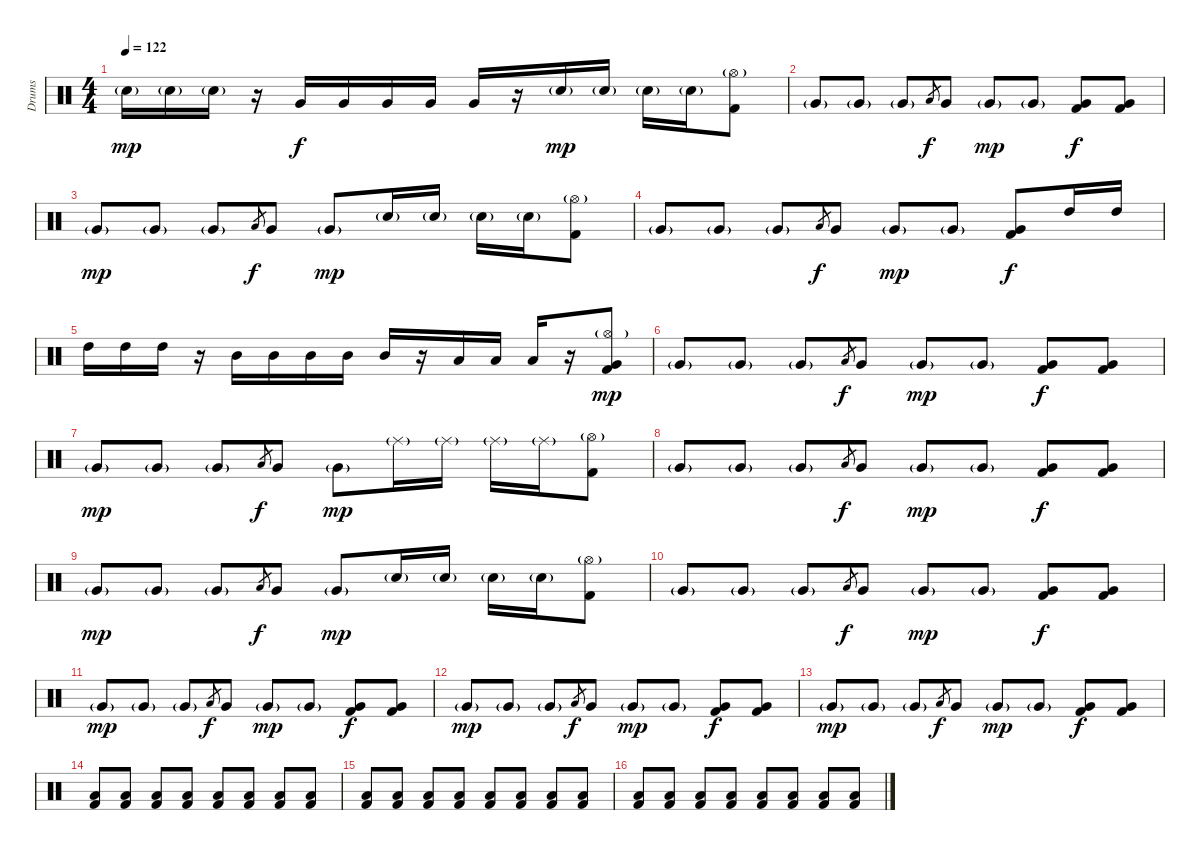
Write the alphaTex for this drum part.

\track ("Drums" "Drums") {instrument percussion}
\staff {score}
\articulation defaults
\ts (4 4)
\tempo 122
\clef neutral
\ks c "Electric Snare (hit)"{g}.16{dy mp} "Electric Snare (hit)"{g}.16 "Electric Snare (hit)"{g}.16
r.16 "Very Low Tom (hit)".16{dy f} "Very Low Tom (hit)".16 "Very Low Tom (hit)".16 "Very Low Tom (hit)".16 "Very Low Tom (hit)".16 r.16 "Electric Snare (hit)"{g}.16{dy mp} "Electric Snare (hit)"{g}.16 "Electric Snare (hit)"{g}.16 "Electric Snare (hit)"{g}.16 ("Hi-Hat (open)"{g} "Kick (hit) 2").8 |
"Very Low Tom (hit)"{g}.8 "Very Low Tom (hit)"{g}.8 "Very Low Tom (hit)"{g}.8 "Low Floor Tom (hit)".8{gr dy f} "Very Low Tom (hit)".8 "Very Low Tom (hit)"{g}.8{dy mp} "Very Low Tom (hit)"{g}.8 ("Very Low Tom (hit)" "Kick (hit) 2").8{dy f} ("Very Low Tom (hit)" "Kick (hit) 2").8 |
"Very Low Tom (hit)"{g}.8{dy mp} "Very Low Tom (hit)"{g}.8 "Very Low Tom (hit)"{g}.8 "Low Floor Tom (hit)".8{gr dy f} "Very Low Tom (hit)".8 "Very Low Tom (hit)"{g}.8{dy mp} "Electric Snare (hit)"{g}.16 "Electric Snare (hit)"{g}.16 "Electric Snare (hit)"{g}.16 "Electric Snare (hit)"{g}.16 ("Hi-Hat (open)"{g} "Kick (hit) 2").8 |
"Very Low Tom (hit)"{g}.8 "Very Low Tom (hit)"{g}.8 "Very Low Tom (hit)"{g}.8 "Low Floor Tom (hit)".8{gr dy f} "Very Low Tom (hit)".8 "Very Low Tom (hit)"{g}.8{dy mp} "Very Low Tom (hit)"{g}.8 ("Very Low Tom (hit)" "Kick (hit) 2").8{dy f} "High Tom (hit)".16 "High Tom (hit)".16 |
"High Tom (hit)".16 "High Tom (hit)".16 "High Tom (hit)".16 r.16 "Mid Tom (hit)".16 "Mid Tom (hit)".16 "Mid Tom (hit)".16 "Mid Tom (hit)".16 "Mid Tom (hit)".16 r.16 "Low Tom (hit)".16 "Low Tom (hit)".16 "Low Tom (hit)".16 r.16 ("Hi-Hat (open)"{g} "Very Low Tom (hit)" "Kick (hit) 2").8{dy mp} |
"Very Low Tom (hit)"{g}.8 "Very Low Tom (hit)"{g}.8 "Very Low Tom (hit)"{g}.8 "Low Floor Tom (hit)".8{gr dy f} "Very Low Tom (hit)".8 "Very Low Tom (hit)"{g}.8{dy mp} "Very Low Tom (hit)"{g}.8 ("Very Low Tom (hit)" "Kick (hit) 2").8{dy f} ("Very Low Tom (hit)" "Kick (hit) 2").8 |
"Very Low Tom (hit)"{g}.8{dy mp} "Very Low Tom (hit)"{g}.8 "Very Low Tom (hit)"{g}.8 "Low Floor Tom (hit)".8{gr dy f} "Very Low Tom (hit)".8 "Very Low Tom (hit)"{g}.8{dy mp} "Ride (middle)"{g}.16 "Ride (middle)"{g}.16 "Ride (middle)"{g}.16 "Ride (middle)"{g}.16 ("Hi-Hat (open)"{g} "Kick (hit) 2").8 |
"Very Low Tom (hit)"{g}.8 "Very Low Tom (hit)"{g}.8 "Very Low Tom (hit)"{g}.8 "Low Floor Tom (hit)".8{gr dy f} "Very Low Tom (hit)".8 "Very Low Tom (hit)"{g}.8{dy mp} "Very Low Tom (hit)"{g}.8 ("Very Low Tom (hit)" "Kick (hit) 2").8{dy f} ("Very Low Tom (hit)" "Kick (hit) 2").8 |
"Very Low Tom (hit)"{g}.8{dy mp} "Very Low Tom (hit)"{g}.8 "Very Low Tom (hit)"{g}.8 "Low Floor Tom (hit)".8{gr dy f} "Very Low Tom (hit)".8 "Very Low Tom (hit)"{g}.8{dy mp} "Electric Snare (hit)"{g}.16 "Electric Snare (hit)"{g}.16 "Electric Snare (hit)"{g}.16 "Electric Snare (hit)"{g}.16 ("Hi-Hat (open)"{g} "Kick (hit) 2").8 |
"Very Low Tom (hit)"{g}.8 "Very Low Tom (hit)"{g}.8 "Very Low Tom (hit)"{g}.8 "Low Floor Tom (hit)".8{gr dy f} "Very Low Tom (hit)".8 "Very Low Tom (hit)"{g}.8{dy mp} "Very Low Tom (hit)"{g}.8 ("Very Low Tom (hit)" "Kick (hit) 2").8{dy f} ("Very Low Tom (hit)" "Kick (hit) 2").8 |
"Very Low Tom (hit)"{g}.8{dy mp} "Very Low Tom (hit)"{g}.8 "Very Low Tom (hit)"{g}.8 "Low Floor Tom (hit)".8{gr dy f} "Very Low Tom (hit)".8 "Very Low Tom (hit)"{g}.8{dy mp} "Very Low Tom (hit)"{g}.8 ("Very Low Tom (hit)" "Kick (hit) 2").8{dy f} ("Very Low Tom (hit)" "Kick (hit) 2").8 |
"Very Low Tom (hit)"{g}.8{dy mp} "Very Low Tom (hit)"{g}.8 "Very Low Tom (hit)"{g}.8 "Low Floor Tom (hit)".8{gr dy f} "Very Low Tom (hit)".8 "Very Low Tom (hit)"{g}.8{dy mp} "Very Low Tom (hit)"{g}.8 ("Very Low Tom (hit)" "Kick (hit) 2").8{dy f} ("Very Low Tom (hit)" "Kick (hit) 2").8 |
"Very Low Tom (hit)"{g}.8{dy mp} "Very Low Tom (hit)"{g}.8 "Very Low Tom (hit)"{g}.8 "Low Floor Tom (hit)".8{gr dy f} "Very Low Tom (hit)".8 "Very Low Tom (hit)"{g}.8{dy mp} "Very Low Tom (hit)"{g}.8 ("Very Low Tom (hit)" "Kick (hit) 2").8{dy f} ("Very Low Tom (hit)" "Kick (hit) 2").8 |
("Low Floor Tom (hit)" "Kick (hit) 2").8{volume 8} ("Low Floor Tom (hit)" "Kick (hit) 2").8 ("Low Floor Tom (hit)" "Kick (hit) 2").8 ("Low Floor Tom (hit)" "Kick (hit) 2").8 ("Low Floor Tom (hit)" "Kick (hit) 2").8{volume 9} ("Low Floor Tom (hit)" "Kick (hit) 2").8 ("Low Floor Tom (hit)" "Kick (hit) 2").8 ("Low Floor Tom (hit)" "Kick (hit) 2").8 |
("Low Floor Tom (hit)" "Kick (hit) 2").8{volume 10} ("Low Floor Tom (hit)" "Kick (hit) 2").8 ("Low Floor Tom (hit)" "Kick (hit) 2").8 ("Low Floor Tom (hit)" "Kick (hit) 2").8 ("Low Floor Tom (hit)" "Kick (hit) 2").8{volume 11} ("Low Floor Tom (hit)" "Kick (hit) 2").8 ("Low Floor Tom (hit)" "Kick (hit) 2").8 ("Low Floor Tom (hit)" "Kick (hit) 2").8 |
("Low Floor Tom (hit)" "Kick (hit) 2").8{volume 12} ("Low Floor Tom (hit)" "Kick (hit) 2").8 ("Low Floor Tom (hit)" "Kick (hit) 2").8 ("Low Floor Tom (hit)" "Kick (hit) 2").8 ("Low Floor Tom (hit)" "Kick (hit) 2").8{volume 13} ("Low Floor Tom (hit)" "Kick (hit) 2").8 ("Low Floor Tom (hit)" "Kick (hit) 2").8 ("Low Floor Tom (hit)" "Kick (hit) 2").8
